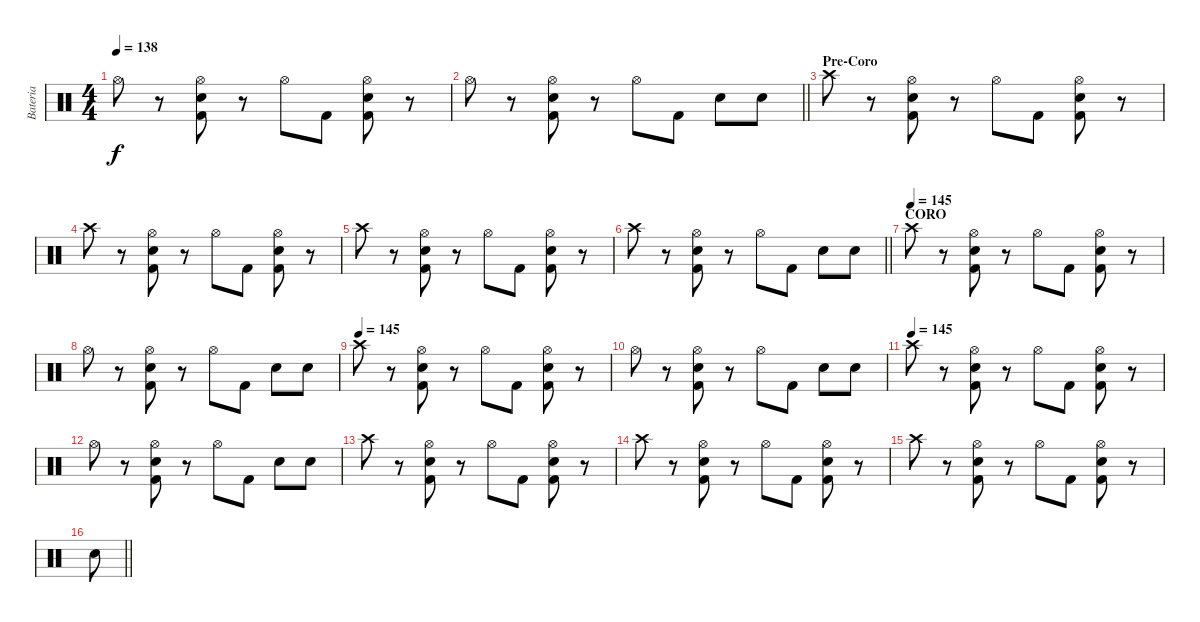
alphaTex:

\track ("Bateria" "Bateria") {instrument percussion}
\staff {score}
\articulation defaults
\ts (4 4)
\tempo 138
\clef neutral
\ks c "Hi-Hat (open)".8{dy f}
r.8 ("Hi-Hat (open)" "Electric Snare (hit)" "Kick (hit) 2").8 r.8 "Hi-Hat (open)".8 "Kick (hit) 2".8 ("Hi-Hat (open)" "Electric Snare (hit)" "Kick (hit) 2").8 r.8 |
\barLineRight lightlight "Hi-Hat (open)".8
r.8 ("Hi-Hat (open)" "Electric Snare (hit)" "Kick (hit) 2").8 r.8 "Hi-Hat (open)".8 "Kick (hit) 2".8 "Electric Snare (hit)".8 "Electric Snare (hit)".8 |
\section ("" "Pre-Coro")
"Crash high (hit)".8 r.8 ("Hi-Hat (open)" "Electric Snare (hit)" "Kick (hit) 2").8 r.8 "Hi-Hat (open)".8 "Kick (hit) 2".8 ("Hi-Hat (open)" "Electric Snare (hit)" "Kick (hit) 2").8 r.8 |
"Crash high (hit)".8 r.8 ("Hi-Hat (open)" "Electric Snare (hit)" "Kick (hit) 2").8 r.8 "Hi-Hat (open)".8 "Kick (hit) 2".8 ("Hi-Hat (open)" "Electric Snare (hit)" "Kick (hit) 2").8 r.8 |
"Crash high (hit)".8 r.8 ("Hi-Hat (open)" "Electric Snare (hit)" "Kick (hit) 2").8 r.8 "Hi-Hat (open)".8 "Kick (hit) 2".8 ("Hi-Hat (open)" "Electric Snare (hit)" "Kick (hit) 2").8 r.8 |
\barLineRight lightlight "Crash high (hit)".8
r.8 ("Hi-Hat (open)" "Electric Snare (hit)" "Kick (hit) 2").8 r.8 "Hi-Hat (open)".8 "Kick (hit) 2".8 "Electric Snare (hit)".8 "Electric Snare (hit)".8 |
\section ("" "CORO")
\tempo (145)
"Crash high (hit)".8 r.8 ("Hi-Hat (open)" "Electric Snare (hit)" "Kick (hit) 2").8 r.8 "Hi-Hat (open)".8 "Kick (hit) 2".8 ("Hi-Hat (open)" "Electric Snare (hit)" "Kick (hit) 2").8 r.8 |
"Hi-Hat (open)".8 r.8 ("Hi-Hat (open)" "Electric Snare (hit)" "Kick (hit) 2").8 r.8 "Hi-Hat (open)".8 "Kick (hit) 2".8 "Electric Snare (hit)".8 "Electric Snare (hit)".8 |
\tempo (145)
"Crash high (hit)".8 r.8 ("Hi-Hat (open)" "Electric Snare (hit)" "Kick (hit) 2").8 r.8 "Hi-Hat (open)".8 "Kick (hit) 2".8 ("Hi-Hat (open)" "Electric Snare (hit)" "Kick (hit) 2").8 r.8 |
"Hi-Hat (open)".8 r.8 ("Hi-Hat (open)" "Electric Snare (hit)" "Kick (hit) 2").8 r.8 "Hi-Hat (open)".8 "Kick (hit) 2".8 "Electric Snare (hit)".8 "Electric Snare (hit)".8 |
\tempo (145)
"Crash high (hit)".8 r.8 ("Hi-Hat (open)" "Electric Snare (hit)" "Kick (hit) 2").8 r.8 "Hi-Hat (open)".8 "Kick (hit) 2".8 ("Hi-Hat (open)" "Electric Snare (hit)" "Kick (hit) 2").8 r.8 |
"Hi-Hat (open)".8 r.8 ("Hi-Hat (open)" "Electric Snare (hit)" "Kick (hit) 2").8 r.8 "Hi-Hat (open)".8 "Kick (hit) 2".8 "Electric Snare (hit)".8 "Electric Snare (hit)".8 |
"Crash high (hit)".8 r.8 ("Hi-Hat (open)" "Electric Snare (hit)" "Kick (hit) 2").8 r.8 "Hi-Hat (open)".8 "Kick (hit) 2".8 ("Hi-Hat (open)" "Electric Snare (hit)" "Kick (hit) 2").8 r.8 |
"Crash high (hit)".8 r.8 ("Hi-Hat (open)" "Electric Snare (hit)" "Kick (hit) 2").8 r.8 "Hi-Hat (open)".8 "Kick (hit) 2".8 ("Hi-Hat (open)" "Electric Snare (hit)" "Kick (hit) 2").8 r.8 |
"Crash high (hit)".8 r.8 ("Hi-Hat (open)" "Electric Snare (hit)" "Kick (hit) 2").8 r.8 "Hi-Hat (open)".8 "Kick (hit) 2".8 ("Hi-Hat (open)" "Electric Snare (hit)" "Kick (hit) 2").8 r.8 |
\barLineRight lightlight "Electric Snare (hit)".8
